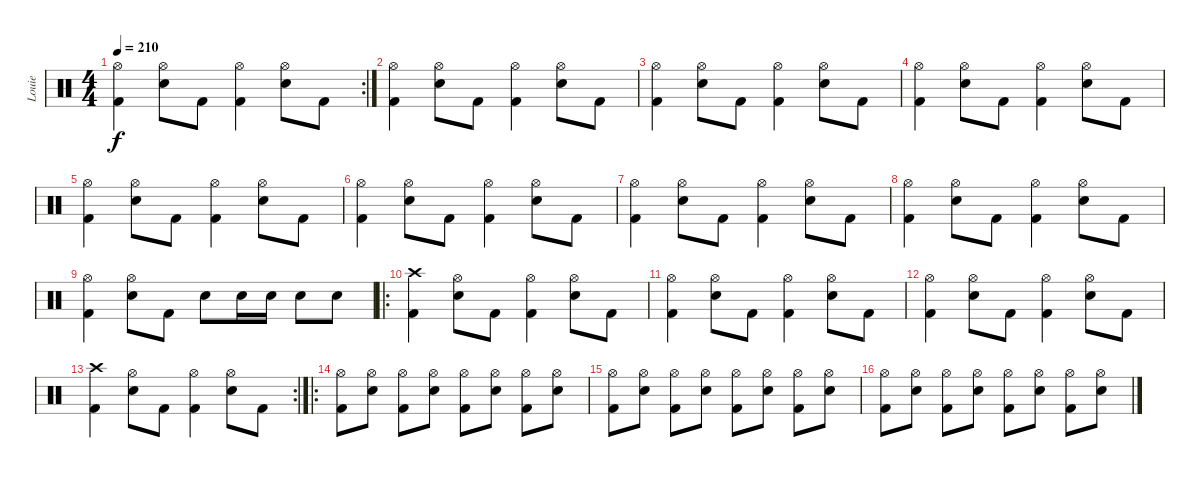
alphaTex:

\track ("Louie" "Louie") {instrument percussion}
\staff {score}
\articulation defaults
\rc 2
\ts (4 4)
\tempo 210
\clef neutral
\ks c
("Hi-Hat (open)" "Kick (hit) 2").4{dy f} ("Hi-Hat (open)" "Snare (hit) 2").8 "Kick (hit) 2".8 ("Hi-Hat (open)" "Kick (hit) 2").4 ("Hi-Hat (open)" "Snare (hit) 2").8 "Kick (hit) 2".8 |
("Hi-Hat (open)" "Kick (hit) 2").4 ("Hi-Hat (open)" "Snare (hit) 2").8 "Kick (hit) 2".8 ("Hi-Hat (open)" "Kick (hit) 2").4 ("Hi-Hat (open)" "Snare (hit) 2").8 "Kick (hit) 2".8 |
("Hi-Hat (open)" "Kick (hit) 2").4 ("Hi-Hat (open)" "Snare (hit) 2").8 "Kick (hit) 2".8 ("Hi-Hat (open)" "Kick (hit) 2").4 ("Hi-Hat (open)" "Snare (hit) 2").8 "Kick (hit) 2".8 |
("Hi-Hat (open)" "Kick (hit) 2").4 ("Hi-Hat (open)" "Snare (hit) 2").8 "Kick (hit) 2".8 ("Hi-Hat (open)" "Kick (hit) 2").4 ("Hi-Hat (open)" "Snare (hit) 2").8 "Kick (hit) 2".8 |
("Hi-Hat (open)" "Kick (hit) 2").4 ("Hi-Hat (open)" "Snare (hit) 2").8 "Kick (hit) 2".8 ("Hi-Hat (open)" "Kick (hit) 2").4 ("Hi-Hat (open)" "Snare (hit) 2").8 "Kick (hit) 2".8 |
("Hi-Hat (open)" "Kick (hit) 2").4 ("Hi-Hat (open)" "Snare (hit) 2").8 "Kick (hit) 2".8 ("Hi-Hat (open)" "Kick (hit) 2").4 ("Hi-Hat (open)" "Snare (hit) 2").8 "Kick (hit) 2".8 |
("Hi-Hat (open)" "Kick (hit) 2").4 ("Hi-Hat (open)" "Snare (hit) 2").8 "Kick (hit) 2".8 ("Hi-Hat (open)" "Kick (hit) 2").4 ("Hi-Hat (open)" "Snare (hit) 2").8 "Kick (hit) 2".8 |
("Hi-Hat (open)" "Kick (hit) 2").4 ("Hi-Hat (open)" "Snare (hit) 2").8 "Kick (hit) 2".8 ("Hi-Hat (open)" "Kick (hit) 2").4 ("Hi-Hat (open)" "Snare (hit) 2").8 "Kick (hit) 2".8 |
("Hi-Hat (open)" "Kick (hit) 2").4 ("Hi-Hat (open)" "Snare (hit) 2").8 "Kick (hit) 2".8 "Snare (hit) 2".8 "Snare (hit) 2".16 "Snare (hit) 2".16 "Snare (hit) 2".8 "Snare (hit) 2".8 |
\ro
("Crash high (hit)" "Kick (hit) 2").4 ("Hi-Hat (open)" "Snare (hit) 2").8 "Kick (hit) 2".8 ("Hi-Hat (open)" "Kick (hit) 2").4 ("Hi-Hat (open)" "Snare (hit) 2").8 "Kick (hit) 2".8 |
("Hi-Hat (open)" "Kick (hit) 2").4 ("Hi-Hat (open)" "Snare (hit) 2").8 "Kick (hit) 2".8 ("Hi-Hat (open)" "Kick (hit) 2").4 ("Hi-Hat (open)" "Snare (hit) 2").8 "Kick (hit) 2".8 |
("Hi-Hat (open)" "Kick (hit) 2").4 ("Hi-Hat (open)" "Snare (hit) 2").8 "Kick (hit) 2".8 ("Hi-Hat (open)" "Kick (hit) 2").4 ("Hi-Hat (open)" "Snare (hit) 2").8 "Kick (hit) 2".8 |
\rc 2
("Crash high (hit)" "Kick (hit) 2").4 ("Hi-Hat (open)" "Snare (hit) 2").8 "Kick (hit) 2".8 ("Hi-Hat (open)" "Kick (hit) 2").4 ("Hi-Hat (open)" "Snare (hit) 2").8 "Kick (hit) 2".8 |
\ro
("Hi-Hat (open)" "Kick (hit) 2").8 ("Hi-Hat (open)" "Snare (hit) 2").8 ("Hi-Hat (open)" "Kick (hit) 2").8 ("Hi-Hat (open)" "Snare (hit) 2").8 ("Hi-Hat (open)" "Kick (hit) 2").8 ("Hi-Hat (open)" "Snare (hit) 2").8 ("Hi-Hat (open)" "Kick (hit) 2").8 ("Hi-Hat (open)" "Snare (hit) 2").8 |
("Hi-Hat (open)" "Kick (hit) 2").8 ("Hi-Hat (open)" "Snare (hit) 2").8 ("Hi-Hat (open)" "Kick (hit) 2").8 ("Hi-Hat (open)" "Snare (hit) 2").8 ("Hi-Hat (open)" "Kick (hit) 2").8 ("Hi-Hat (open)" "Snare (hit) 2").8 ("Hi-Hat (open)" "Kick (hit) 2").8 ("Hi-Hat (open)" "Snare (hit) 2").8 |
("Hi-Hat (open)" "Kick (hit) 2").8 ("Hi-Hat (open)" "Snare (hit) 2").8 ("Hi-Hat (open)" "Kick (hit) 2").8 ("Hi-Hat (open)" "Snare (hit) 2").8 ("Hi-Hat (open)" "Kick (hit) 2").8 ("Hi-Hat (open)" "Snare (hit) 2").8 ("Hi-Hat (open)" "Kick (hit) 2").8 ("Hi-Hat (open)" "Snare (hit) 2").8
